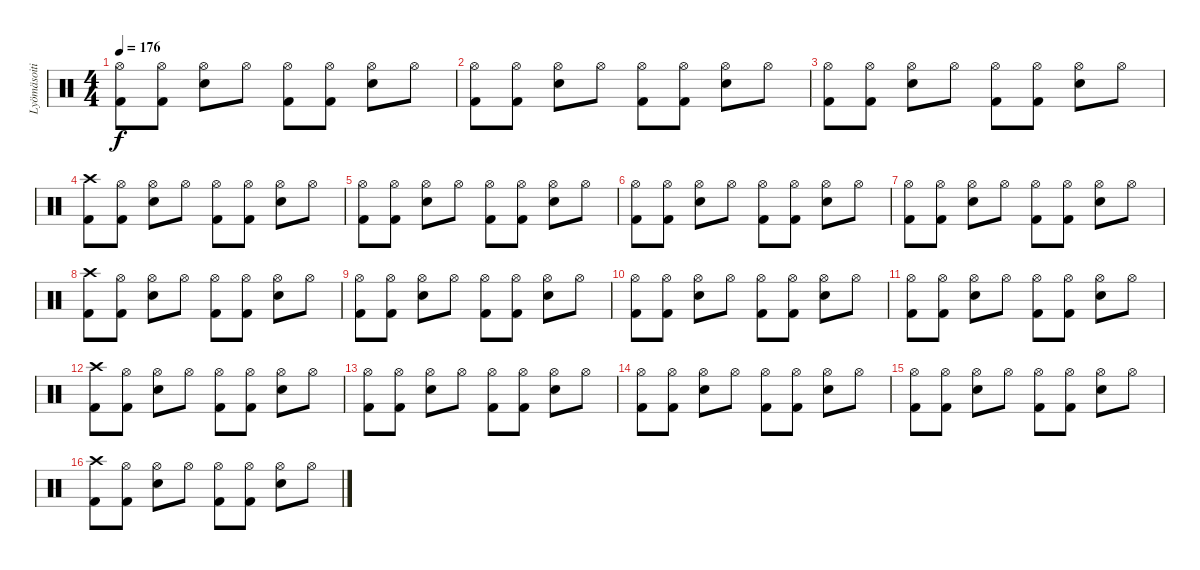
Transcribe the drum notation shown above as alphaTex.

\track ("Lyömäsoitin" "Lyömäsoiti") {instrument percussion}
\staff {score}
\articulation defaults
\ts (4 4)
\tempo 176
\clef neutral
\ks c
("Hi-Hat (open)" "Kick (hit) 2").8{dy f} ("Hi-Hat (open)" "Kick (hit) 2").8 ("Hi-Hat (open)" "Electric Snare (hit)").8 "Hi-Hat (open)".8 ("Hi-Hat (open)" "Kick (hit) 2").8 ("Hi-Hat (open)" "Kick (hit) 2").8 ("Hi-Hat (open)" "Electric Snare (hit)").8 "Hi-Hat (open)".8 |
("Hi-Hat (open)" "Kick (hit) 2").8 ("Hi-Hat (open)" "Kick (hit) 2").8 ("Hi-Hat (open)" "Electric Snare (hit)").8 "Hi-Hat (open)".8 ("Hi-Hat (open)" "Kick (hit) 2").8 ("Hi-Hat (open)" "Kick (hit) 2").8 ("Hi-Hat (open)" "Electric Snare (hit)").8 "Hi-Hat (open)".8 |
("Hi-Hat (open)" "Kick (hit) 2").8 ("Hi-Hat (open)" "Kick (hit) 2").8 ("Hi-Hat (open)" "Electric Snare (hit)").8 "Hi-Hat (open)".8 ("Hi-Hat (open)" "Kick (hit) 2").8 ("Hi-Hat (open)" "Kick (hit) 2").8 ("Hi-Hat (open)" "Electric Snare (hit)").8 "Hi-Hat (open)".8 |
("Crash high (hit)" "Kick (hit) 2").8 ("Hi-Hat (open)" "Kick (hit) 2").8 ("Hi-Hat (open)" "Electric Snare (hit)").8 "Hi-Hat (open)".8 ("Hi-Hat (open)" "Kick (hit) 2").8 ("Hi-Hat (open)" "Kick (hit) 2").8 ("Hi-Hat (open)" "Electric Snare (hit)").8 "Hi-Hat (open)".8 |
("Hi-Hat (open)" "Kick (hit) 2").8 ("Hi-Hat (open)" "Kick (hit) 2").8 ("Hi-Hat (open)" "Electric Snare (hit)").8 "Hi-Hat (open)".8 ("Hi-Hat (open)" "Kick (hit) 2").8 ("Hi-Hat (open)" "Kick (hit) 2").8 ("Hi-Hat (open)" "Electric Snare (hit)").8 "Hi-Hat (open)".8 |
("Hi-Hat (open)" "Kick (hit) 2").8 ("Hi-Hat (open)" "Kick (hit) 2").8 ("Hi-Hat (open)" "Electric Snare (hit)").8 "Hi-Hat (open)".8 ("Hi-Hat (open)" "Kick (hit) 2").8 ("Hi-Hat (open)" "Kick (hit) 2").8 ("Hi-Hat (open)" "Electric Snare (hit)").8 "Hi-Hat (open)".8 |
("Hi-Hat (open)" "Kick (hit) 2").8 ("Hi-Hat (open)" "Kick (hit) 2").8 ("Hi-Hat (open)" "Electric Snare (hit)").8 "Hi-Hat (open)".8 ("Hi-Hat (open)" "Kick (hit) 2").8 ("Hi-Hat (open)" "Kick (hit) 2").8 ("Hi-Hat (open)" "Electric Snare (hit)").8 "Hi-Hat (open)".8 |
("Crash high (hit)" "Kick (hit) 2").8 ("Hi-Hat (open)" "Kick (hit) 2").8 ("Hi-Hat (open)" "Electric Snare (hit)").8 "Hi-Hat (open)".8 ("Hi-Hat (open)" "Kick (hit) 2").8 ("Hi-Hat (open)" "Kick (hit) 2").8 ("Hi-Hat (open)" "Electric Snare (hit)").8 "Hi-Hat (open)".8 |
("Hi-Hat (open)" "Kick (hit) 2").8 ("Hi-Hat (open)" "Kick (hit) 2").8 ("Hi-Hat (open)" "Electric Snare (hit)").8 "Hi-Hat (open)".8 ("Hi-Hat (open)" "Kick (hit) 2").8 ("Hi-Hat (open)" "Kick (hit) 2").8 ("Hi-Hat (open)" "Electric Snare (hit)").8 "Hi-Hat (open)".8 |
("Hi-Hat (open)" "Kick (hit) 2").8 ("Hi-Hat (open)" "Kick (hit) 2").8 ("Hi-Hat (open)" "Electric Snare (hit)").8 "Hi-Hat (open)".8 ("Hi-Hat (open)" "Kick (hit) 2").8 ("Hi-Hat (open)" "Kick (hit) 2").8 ("Hi-Hat (open)" "Electric Snare (hit)").8 "Hi-Hat (open)".8 |
("Hi-Hat (open)" "Kick (hit) 2").8 ("Hi-Hat (open)" "Kick (hit) 2").8 ("Hi-Hat (open)" "Electric Snare (hit)").8 "Hi-Hat (open)".8 ("Hi-Hat (open)" "Kick (hit) 2").8 ("Hi-Hat (open)" "Kick (hit) 2").8 ("Hi-Hat (open)" "Electric Snare (hit)").8 "Hi-Hat (open)".8 |
("Crash high (hit)" "Kick (hit) 2").8 ("Hi-Hat (open)" "Kick (hit) 2").8 ("Hi-Hat (open)" "Electric Snare (hit)").8 "Hi-Hat (open)".8 ("Hi-Hat (open)" "Kick (hit) 2").8 ("Hi-Hat (open)" "Kick (hit) 2").8 ("Hi-Hat (open)" "Electric Snare (hit)").8 "Hi-Hat (open)".8 |
("Hi-Hat (open)" "Kick (hit) 2").8 ("Hi-Hat (open)" "Kick (hit) 2").8 ("Hi-Hat (open)" "Electric Snare (hit)").8 "Hi-Hat (open)".8 ("Hi-Hat (open)" "Kick (hit) 2").8 ("Hi-Hat (open)" "Kick (hit) 2").8 ("Hi-Hat (open)" "Electric Snare (hit)").8 "Hi-Hat (open)".8 |
("Hi-Hat (open)" "Kick (hit) 2").8 ("Hi-Hat (open)" "Kick (hit) 2").8 ("Hi-Hat (open)" "Electric Snare (hit)").8 "Hi-Hat (open)".8 ("Hi-Hat (open)" "Kick (hit) 2").8 ("Hi-Hat (open)" "Kick (hit) 2").8 ("Hi-Hat (open)" "Electric Snare (hit)").8 "Hi-Hat (open)".8 |
("Hi-Hat (open)" "Kick (hit) 2").8 ("Hi-Hat (open)" "Kick (hit) 2").8 ("Hi-Hat (open)" "Electric Snare (hit)").8 "Hi-Hat (open)".8 ("Hi-Hat (open)" "Kick (hit) 2").8 ("Hi-Hat (open)" "Kick (hit) 2").8 ("Hi-Hat (open)" "Electric Snare (hit)").8 "Hi-Hat (open)".8 |
("Crash high (hit)" "Kick (hit) 2").8 ("Hi-Hat (open)" "Kick (hit) 2").8 ("Hi-Hat (open)" "Electric Snare (hit)").8 "Hi-Hat (open)".8 ("Hi-Hat (open)" "Kick (hit) 2").8 ("Hi-Hat (open)" "Kick (hit) 2").8 ("Hi-Hat (open)" "Electric Snare (hit)").8 "Hi-Hat (open)".8
